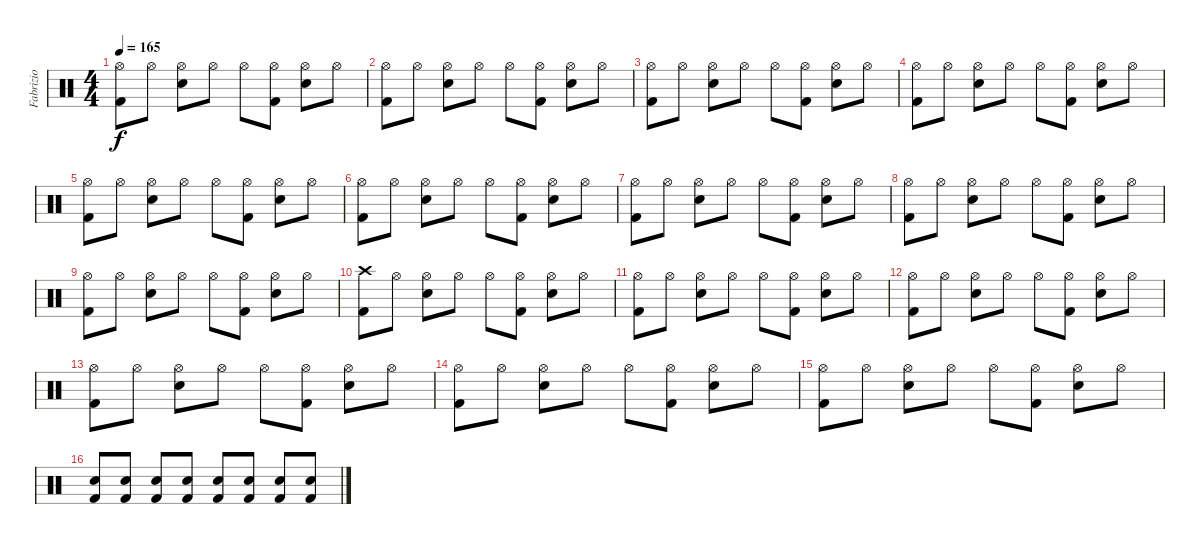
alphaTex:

\track ("Fabrizio" "Fabrizio") {instrument percussion}
\staff {score}
\articulation defaults
\ts (4 4)
\tempo 165
\clef neutral
\ks c
("Kick (hit) 2" "Hi-Hat (open)").8{dy f} "Hi-Hat (open)".8 ("Snare (hit) 2" "Hi-Hat (open)").8 "Hi-Hat (open)".8 "Hi-Hat (open)".8 ("Kick (hit) 2" "Hi-Hat (open)").8 ("Snare (hit) 2" "Hi-Hat (open)").8 "Hi-Hat (open)".8 |
("Kick (hit) 2" "Hi-Hat (open)").8 "Hi-Hat (open)".8 ("Snare (hit) 2" "Hi-Hat (open)").8 "Hi-Hat (open)".8 "Hi-Hat (open)".8 ("Kick (hit) 2" "Hi-Hat (open)").8 ("Snare (hit) 2" "Hi-Hat (open)").8 "Hi-Hat (open)".8 |
("Kick (hit) 2" "Hi-Hat (open)").8 "Hi-Hat (open)".8 ("Snare (hit) 2" "Hi-Hat (open)").8 "Hi-Hat (open)".8 "Hi-Hat (open)".8 ("Kick (hit) 2" "Hi-Hat (open)").8 ("Snare (hit) 2" "Hi-Hat (open)").8 "Hi-Hat (open)".8 |
("Kick (hit) 2" "Hi-Hat (open)").8 "Hi-Hat (open)".8 ("Snare (hit) 2" "Hi-Hat (open)").8 "Hi-Hat (open)".8 "Hi-Hat (open)".8 ("Kick (hit) 2" "Hi-Hat (open)").8 ("Snare (hit) 2" "Hi-Hat (open)").8 "Hi-Hat (open)".8 |
("Kick (hit) 2" "Hi-Hat (open)").8 "Hi-Hat (open)".8 ("Snare (hit) 2" "Hi-Hat (open)").8 "Hi-Hat (open)".8 "Hi-Hat (open)".8 ("Kick (hit) 2" "Hi-Hat (open)").8 ("Snare (hit) 2" "Hi-Hat (open)").8 "Hi-Hat (open)".8 |
("Kick (hit) 2" "Hi-Hat (open)").8 "Hi-Hat (open)".8 ("Snare (hit) 2" "Hi-Hat (open)").8 "Hi-Hat (open)".8 "Hi-Hat (open)".8 ("Kick (hit) 2" "Hi-Hat (open)").8 ("Snare (hit) 2" "Hi-Hat (open)").8 "Hi-Hat (open)".8 |
("Kick (hit) 2" "Hi-Hat (open)").8 "Hi-Hat (open)".8 ("Snare (hit) 2" "Hi-Hat (open)").8 "Hi-Hat (open)".8 "Hi-Hat (open)".8 ("Kick (hit) 2" "Hi-Hat (open)").8 ("Snare (hit) 2" "Hi-Hat (open)").8 "Hi-Hat (open)".8 |
("Kick (hit) 2" "Hi-Hat (open)").8 "Hi-Hat (open)".8 ("Snare (hit) 2" "Hi-Hat (open)").8 "Hi-Hat (open)".8 "Hi-Hat (open)".8 ("Kick (hit) 2" "Hi-Hat (open)").8 ("Snare (hit) 2" "Hi-Hat (open)").8 "Hi-Hat (open)".8 |
("Kick (hit) 2" "Hi-Hat (open)").8 "Hi-Hat (open)".8 ("Snare (hit) 2" "Hi-Hat (open)").8 "Hi-Hat (open)".8 "Hi-Hat (open)".8 ("Kick (hit) 2" "Hi-Hat (open)").8 ("Snare (hit) 2" "Hi-Hat (open)").8 "Hi-Hat (open)".8 |
("Crash high (hit)" "Kick (hit) 2").8 "Hi-Hat (open)".8 ("Hi-Hat (open)" "Snare (hit) 2").8 "Hi-Hat (open)".8 "Hi-Hat (open)".8 ("Kick (hit) 2" "Hi-Hat (open)").8 ("Hi-Hat (open)" "Snare (hit) 2").8 "Hi-Hat (open)".8 |
("Kick (hit) 2" "Hi-Hat (open)").8 "Hi-Hat (open)".8 ("Snare (hit) 2" "Hi-Hat (open)").8 "Hi-Hat (open)".8 "Hi-Hat (open)".8 ("Kick (hit) 2" "Hi-Hat (open)").8 ("Snare (hit) 2" "Hi-Hat (open)").8 "Hi-Hat (open)".8 |
("Kick (hit) 2" "Hi-Hat (open)").8 "Hi-Hat (open)".8 ("Snare (hit) 2" "Hi-Hat (open)").8 "Hi-Hat (open)".8 "Hi-Hat (open)".8 ("Kick (hit) 2" "Hi-Hat (open)").8 ("Snare (hit) 2" "Hi-Hat (open)").8 "Hi-Hat (open)".8 |
("Kick (hit) 2" "Hi-Hat (open)").8 "Hi-Hat (open)".8 ("Snare (hit) 2" "Hi-Hat (open)").8 "Hi-Hat (open)".8 "Hi-Hat (open)".8 ("Kick (hit) 2" "Hi-Hat (open)").8 ("Snare (hit) 2" "Hi-Hat (open)").8 "Hi-Hat (open)".8 |
("Kick (hit) 2" "Hi-Hat (open)").8 "Hi-Hat (open)".8 ("Snare (hit) 2" "Hi-Hat (open)").8 "Hi-Hat (open)".8 "Hi-Hat (open)".8 ("Kick (hit) 2" "Hi-Hat (open)").8 ("Snare (hit) 2" "Hi-Hat (open)").8 "Hi-Hat (open)".8 |
("Kick (hit) 2" "Hi-Hat (open)").8 "Hi-Hat (open)".8 ("Snare (hit) 2" "Hi-Hat (open)").8 "Hi-Hat (open)".8 "Hi-Hat (open)".8 ("Kick (hit) 2" "Hi-Hat (open)").8 ("Snare (hit) 2" "Hi-Hat (open)").8 "Hi-Hat (open)".8 |
("Snare (hit) 2" "Kick (hit) 2").8 ("Snare (hit) 2" "Kick (hit) 2").8 ("Snare (hit) 2" "Kick (hit) 2").8 ("Snare (hit) 2" "Kick (hit) 2").8 ("Snare (hit) 2" "Kick (hit) 2").8 ("Snare (hit) 2" "Kick (hit) 2").8 ("Snare (hit) 2" "Kick (hit) 2").8 ("Snare (hit) 2" "Kick (hit) 2").8
